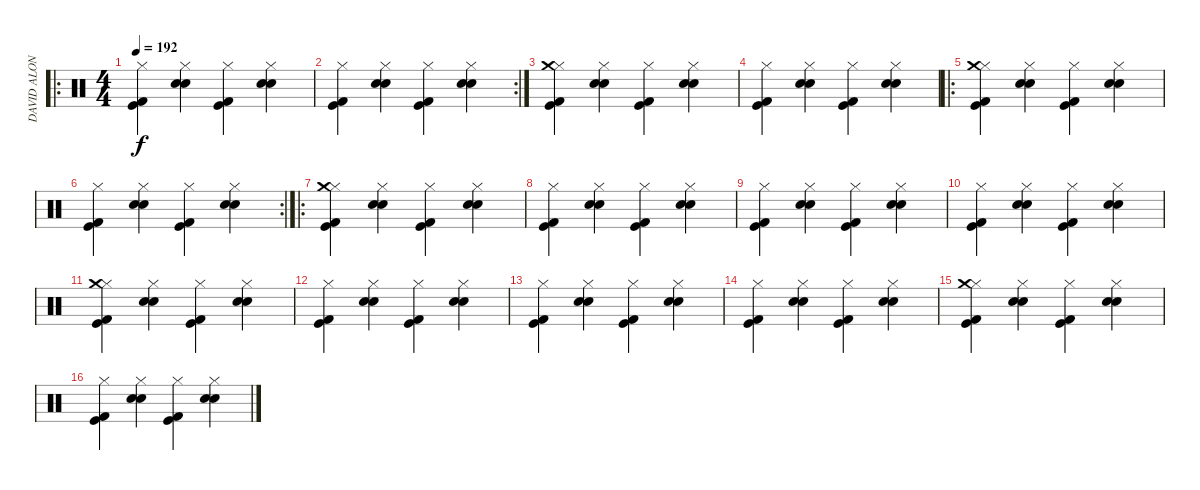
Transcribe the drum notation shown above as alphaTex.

\track ("DAVID ALONSO" "DAVID ALON") {instrument percussion}
\staff {score}
\articulation defaults
\ro
\ts (4 4)
\tempo 192
\clef neutral
\ks c
("Kick (hit)" "Kick (hit) 2" "Hi-Hat (closed)").4{dy f} ("Electric Snare (hit)" "Snare (hit) 2" "Hi-Hat (closed)").4 ("Kick (hit)" "Kick (hit) 2" "Hi-Hat (closed)").4 ("Electric Snare (hit)" "Snare (hit) 2" "Hi-Hat (closed)").4 |
\rc 2
("Kick (hit)" "Kick (hit) 2" "Hi-Hat (closed)").4 ("Electric Snare (hit)" "Snare (hit) 2" "Hi-Hat (closed)").4 ("Kick (hit)" "Kick (hit) 2" "Hi-Hat (closed)").4 ("Electric Snare (hit)" "Snare (hit) 2" "Hi-Hat (closed)").4 |
("Kick (hit)" "Kick (hit) 2" "Hi-Hat (closed)" "Crash medium (hit)").4 ("Electric Snare (hit)" "Snare (hit) 2" "Hi-Hat (closed)").4 ("Kick (hit)" "Kick (hit) 2" "Hi-Hat (closed)").4 ("Electric Snare (hit)" "Snare (hit) 2" "Hi-Hat (closed)").4 |
("Kick (hit)" "Kick (hit) 2" "Hi-Hat (closed)").4 ("Electric Snare (hit)" "Snare (hit) 2" "Hi-Hat (closed)").4 ("Kick (hit)" "Kick (hit) 2" "Hi-Hat (closed)").4 ("Electric Snare (hit)" "Snare (hit) 2" "Hi-Hat (closed)").4 |
\ro
("Kick (hit)" "Kick (hit) 2" "Hi-Hat (closed)" "Crash medium (hit)").4 ("Electric Snare (hit)" "Snare (hit) 2" "Hi-Hat (closed)").4 ("Kick (hit)" "Kick (hit) 2" "Hi-Hat (closed)").4 ("Electric Snare (hit)" "Snare (hit) 2" "Hi-Hat (closed)").4 |
\rc 2
("Kick (hit)" "Kick (hit) 2" "Hi-Hat (closed)").4 ("Electric Snare (hit)" "Snare (hit) 2" "Hi-Hat (closed)").4 ("Kick (hit)" "Kick (hit) 2" "Hi-Hat (closed)").4 ("Electric Snare (hit)" "Snare (hit) 2" "Hi-Hat (closed)").4 |
\ro
("Kick (hit)" "Kick (hit) 2" "Hi-Hat (closed)" "Crash medium (hit)").4 ("Electric Snare (hit)" "Snare (hit) 2" "Hi-Hat (closed)").4 ("Kick (hit)" "Kick (hit) 2" "Hi-Hat (closed)").4 ("Electric Snare (hit)" "Snare (hit) 2" "Hi-Hat (closed)").4 |
("Kick (hit)" "Kick (hit) 2" "Hi-Hat (closed)").4 ("Electric Snare (hit)" "Snare (hit) 2" "Hi-Hat (closed)").4 ("Kick (hit)" "Kick (hit) 2" "Hi-Hat (closed)").4 ("Electric Snare (hit)" "Snare (hit) 2" "Hi-Hat (closed)").4 |
("Kick (hit)" "Kick (hit) 2" "Hi-Hat (closed)").4 ("Electric Snare (hit)" "Snare (hit) 2" "Hi-Hat (closed)").4 ("Kick (hit)" "Kick (hit) 2" "Hi-Hat (closed)").4 ("Electric Snare (hit)" "Snare (hit) 2" "Hi-Hat (closed)").4 |
("Kick (hit)" "Kick (hit) 2" "Hi-Hat (closed)").4 ("Electric Snare (hit)" "Snare (hit) 2" "Hi-Hat (closed)").4 ("Kick (hit)" "Kick (hit) 2" "Hi-Hat (closed)").4 ("Electric Snare (hit)" "Snare (hit) 2" "Hi-Hat (closed)").4 |
("Kick (hit)" "Kick (hit) 2" "Hi-Hat (closed)" "Crash medium (hit)").4 ("Electric Snare (hit)" "Snare (hit) 2" "Hi-Hat (closed)").4 ("Kick (hit)" "Kick (hit) 2" "Hi-Hat (closed)").4 ("Electric Snare (hit)" "Snare (hit) 2" "Hi-Hat (closed)").4 |
("Kick (hit)" "Kick (hit) 2" "Hi-Hat (closed)").4 ("Electric Snare (hit)" "Snare (hit) 2" "Hi-Hat (closed)").4 ("Kick (hit)" "Kick (hit) 2" "Hi-Hat (closed)").4 ("Electric Snare (hit)" "Snare (hit) 2" "Hi-Hat (closed)").4 |
("Kick (hit)" "Kick (hit) 2" "Hi-Hat (closed)").4 ("Electric Snare (hit)" "Snare (hit) 2" "Hi-Hat (closed)").4 ("Kick (hit)" "Kick (hit) 2" "Hi-Hat (closed)").4 ("Electric Snare (hit)" "Snare (hit) 2" "Hi-Hat (closed)").4 |
("Kick (hit)" "Kick (hit) 2" "Hi-Hat (closed)").4 ("Electric Snare (hit)" "Snare (hit) 2" "Hi-Hat (closed)").4 ("Kick (hit)" "Kick (hit) 2" "Hi-Hat (closed)").4 ("Electric Snare (hit)" "Snare (hit) 2" "Hi-Hat (closed)").4 |
("Kick (hit)" "Kick (hit) 2" "Hi-Hat (closed)" "Crash medium (hit)").4 ("Electric Snare (hit)" "Snare (hit) 2" "Hi-Hat (closed)").4 ("Kick (hit)" "Kick (hit) 2" "Hi-Hat (closed)").4 ("Electric Snare (hit)" "Snare (hit) 2" "Hi-Hat (closed)").4 |
("Kick (hit)" "Kick (hit) 2" "Hi-Hat (closed)").4 ("Electric Snare (hit)" "Snare (hit) 2" "Hi-Hat (closed)").4 ("Kick (hit)" "Kick (hit) 2" "Hi-Hat (closed)").4 ("Electric Snare (hit)" "Snare (hit) 2" "Hi-Hat (closed)").4
